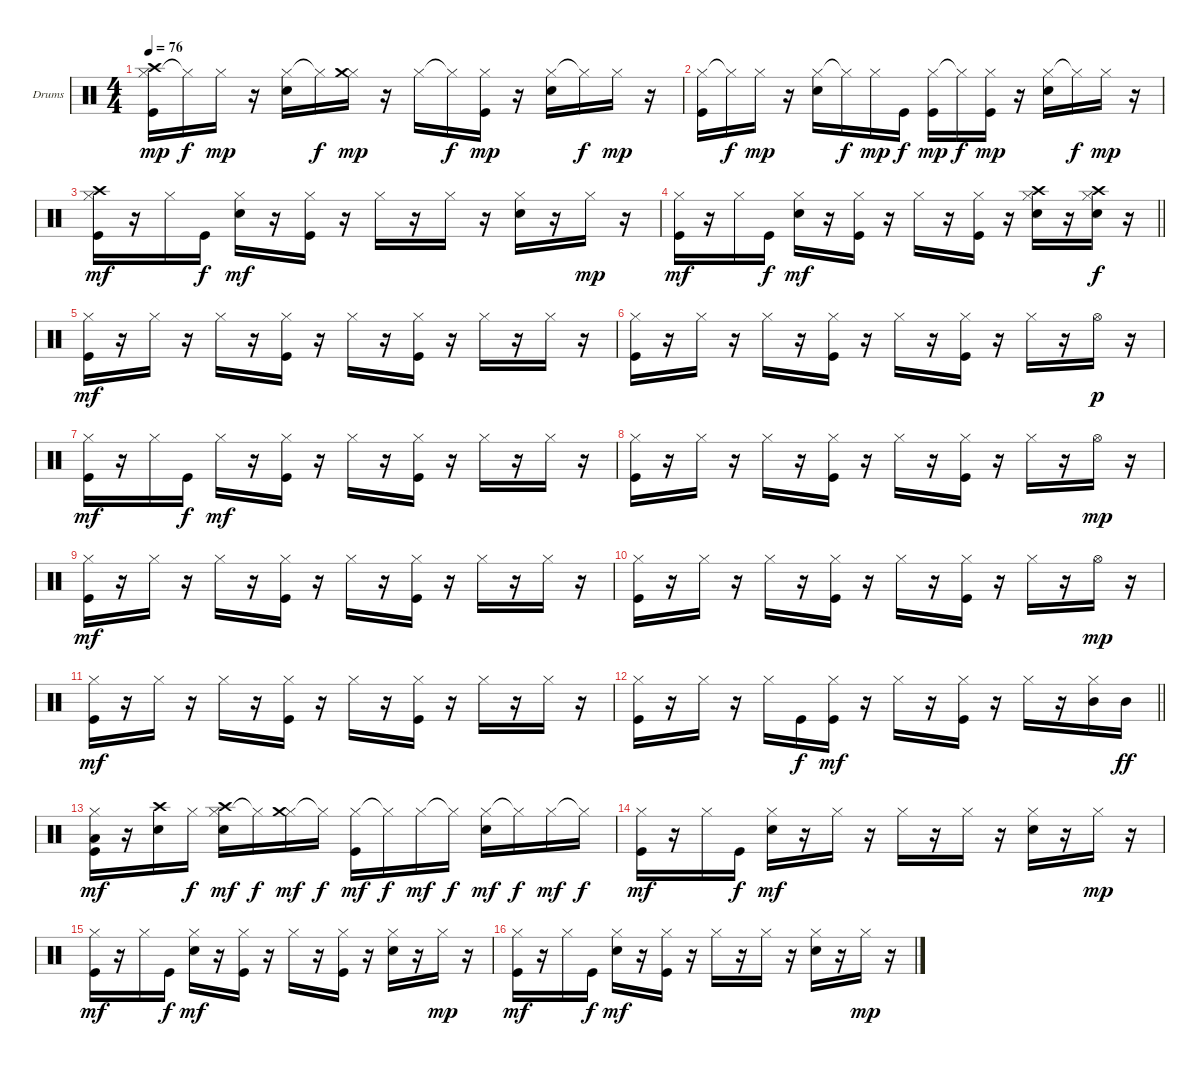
\bracketExtendMode groupsimilarinstruments
\firstSystemTrackNameOrientation horizontal
\otherSystemsTrackNameOrientation horizontal
\track ("Drumkit" "Drums") {instrument percussion}
\staff {score}
\articulation defaults
\ts (4 4)
\tempo 76
\clef neutral
\ks c
("Hi-Hat (closed)" "Crash high (hit)" "Kick (hit)").16{dy mp} "Hi-Hat (closed)"{t}.16{dy f} "Hi-Hat (closed)".16{dy mp} r.16 ("Hi-Hat (closed)" "Snare (hit) 2").16 "Hi-Hat (closed)"{t}.16{dy f} ("Hi-Hat (closed)" "Crash medium (hit)").16{dy mp} r.16 "Hi-Hat (closed)".16 "Hi-Hat (closed)"{t}.16{dy f} ("Hi-Hat (closed)" "Kick (hit)").16{dy mp} r.16 ("Hi-Hat (closed)" "Snare (hit) 2").16 "Hi-Hat (closed)"{t}.16{dy f} "Hi-Hat (closed)".16{dy mp} r.16 |
("Hi-Hat (closed)" "Kick (hit)").16 "Hi-Hat (closed)"{t}.16{dy f} "Hi-Hat (closed)".16{dy mp} r.16 ("Hi-Hat (closed)" "Snare (hit) 2").16 "Hi-Hat (closed)"{t}.16{dy f} "Hi-Hat (closed)".16{dy mp} "Kick (hit)".16{dy f} ("Hi-Hat (closed)" "Kick (hit)").16{dy mp} "Hi-Hat (closed)"{t}.16{dy f} ("Hi-Hat (closed)" "Kick (hit)").16{dy mp} r.16 ("Hi-Hat (closed)" "Snare (hit) 2").16 "Hi-Hat (closed)"{t}.16{dy f} "Hi-Hat (closed)".16{dy mp} r.16 |
("Hi-Hat (closed)" "Crash high (hit)" "Kick (hit)").16{dy mf} r.16 "Hi-Hat (closed)".16 "Kick (hit)".16{dy f} ("Hi-Hat (closed)" "Snare (hit) 2").16{dy mf} r.16 ("Hi-Hat (closed)" "Kick (hit)").16 r.16 "Hi-Hat (closed)".16 r.16 "Hi-Hat (closed)".16 r.16 ("Hi-Hat (closed)" "Snare (hit) 2").16 r.16 "Hi-Hat (closed)".16{dy mp} r.16 |
\barLineRight lightlight
("Hi-Hat (closed)" "Kick (hit)").16{dy mf} r.16 "Hi-Hat (closed)".16 "Kick (hit)".16{dy f} ("Hi-Hat (closed)" "Snare (hit) 2").16{dy mf} r.16 ("Hi-Hat (closed)" "Kick (hit)").16 r.16 "Hi-Hat (closed)".16 r.16 ("Hi-Hat (closed)" "Kick (hit)").16 r.16 ("Hi-Hat (closed)" "Crash high (hit)" "Snare (hit) 2").16 r.16 ("Hi-Hat (closed)" "Crash high (hit)" "Snare (hit) 2").16{dy f} r.16 |
("Hi-Hat (closed)" "Kick (hit)").16{dy mf} r.16 "Hi-Hat (closed)".16 r.16 "Hi-Hat (closed)".16 r.16 ("Hi-Hat (closed)" "Kick (hit)").16 r.16 "Hi-Hat (closed)".16 r.16 ("Hi-Hat (closed)" "Kick (hit)").16 r.16 "Hi-Hat (closed)".16 r.16 "Hi-Hat (closed)".16 r.16 |
("Hi-Hat (closed)" "Kick (hit)").16 r.16 "Hi-Hat (closed)".16 r.16 "Hi-Hat (closed)".16 r.16 ("Hi-Hat (closed)" "Kick (hit)").16 r.16 "Hi-Hat (closed)".16 r.16 ("Hi-Hat (closed)" "Kick (hit)").16 r.16 "Hi-Hat (closed)".16 r.16 "Hi-Hat (open)".16{dy p} r.16 |
("Hi-Hat (closed)" "Kick (hit)").16{dy mf} r.16 "Hi-Hat (closed)".16 "Kick (hit)".16{dy f} "Hi-Hat (closed)".16{dy mf} r.16 ("Hi-Hat (closed)" "Kick (hit)").16 r.16 "Hi-Hat (closed)".16 r.16 ("Hi-Hat (closed)" "Kick (hit)").16 r.16 "Hi-Hat (closed)".16 r.16 "Hi-Hat (closed)".16 r.16 |
("Hi-Hat (closed)" "Kick (hit)").16 r.16 "Hi-Hat (closed)".16 r.16 "Hi-Hat (closed)".16 r.16 ("Hi-Hat (closed)" "Kick (hit)").16 r.16 "Hi-Hat (closed)".16 r.16 ("Hi-Hat (closed)" "Kick (hit)").16 r.16 "Hi-Hat (closed)".16 r.16 "Hi-Hat (open)".16{dy mp} r.16 |
("Hi-Hat (closed)" "Kick (hit)").16{dy mf} r.16 "Hi-Hat (closed)".16 r.16 "Hi-Hat (closed)".16 r.16 ("Hi-Hat (closed)" "Kick (hit)").16 r.16 "Hi-Hat (closed)".16 r.16 ("Hi-Hat (closed)" "Kick (hit)").16 r.16 "Hi-Hat (closed)".16 r.16 "Hi-Hat (closed)".16 r.16 |
("Hi-Hat (closed)" "Kick (hit)").16 r.16 "Hi-Hat (closed)".16 r.16 "Hi-Hat (closed)".16 r.16 ("Hi-Hat (closed)" "Kick (hit)").16 r.16 "Hi-Hat (closed)".16 r.16 ("Hi-Hat (closed)" "Kick (hit)").16 r.16 "Hi-Hat (closed)".16 r.16 "Hi-Hat (open)".16{dy mp} r.16 |
("Hi-Hat (closed)" "Kick (hit)").16{dy mf} r.16 "Hi-Hat (closed)".16 r.16 "Hi-Hat (closed)".16 r.16 ("Hi-Hat (closed)" "Kick (hit)").16 r.16 "Hi-Hat (closed)".16 r.16 ("Hi-Hat (closed)" "Kick (hit)").16 r.16 "Hi-Hat (closed)".16 r.16 "Hi-Hat (closed)".16 r.16 |
\barLineRight lightlight
("Hi-Hat (closed)" "Kick (hit)").16 r.16 "Hi-Hat (closed)".16 r.16 "Hi-Hat (closed)".16 "Kick (hit)".16{dy f} ("Hi-Hat (closed)" "Kick (hit)").16{dy mf} r.16 "Hi-Hat (closed)".16 r.16 ("Hi-Hat (closed)" "Kick (hit)").16 r.16 "Hi-Hat (closed)".16 r.16 ("Hi-Hat (closed)" "Mid Tom (hit)").16 "Mid Tom (hit)".16{dy ff} |
("Hi-Hat (closed)" "Low Tom (hit)" "Kick (hit)").16{dy mf} r.16 ("Crash high (hit)" "Snare (hit) 2").16 "Hi-Hat (closed)".16{dy f} ("Hi-Hat (closed)" "Crash high (hit)" "Snare (hit) 2").16{dy mf} "Hi-Hat (closed)"{t}.16{dy f} ("Hi-Hat (closed)" "Crash medium (hit)").16{dy mf} "Hi-Hat (closed)"{t}.16{dy f} ("Hi-Hat (closed)" "Kick (hit)").16{dy mf} "Hi-Hat (closed)"{t}.16{dy f} "Hi-Hat (closed)".16{dy mf} "Hi-Hat (closed)"{t}.16{dy f} ("Hi-Hat (closed)" "Snare (hit) 2").16{dy mf} "Hi-Hat (closed)"{t}.16{dy f} "Hi-Hat (closed)".16{dy mf} "Hi-Hat (closed)"{t}.16{dy f} |
("Hi-Hat (closed)" "Kick (hit)").16{dy mf} r.16 "Hi-Hat (closed)".16 "Kick (hit)".16{dy f} ("Hi-Hat (closed)" "Snare (hit) 2").16{dy mf} r.16 "Hi-Hat (closed)".16 r.16 "Hi-Hat (closed)".16 r.16 "Hi-Hat (closed)".16 r.16 ("Hi-Hat (closed)" "Snare (hit) 2").16 r.16 "Hi-Hat (closed)".16{dy mp} r.16 |
("Hi-Hat (closed)" "Kick (hit)").16{dy mf} r.16 "Hi-Hat (closed)".16 "Kick (hit)".16{dy f} ("Hi-Hat (closed)" "Snare (hit) 2").16{dy mf} r.16 ("Hi-Hat (closed)" "Kick (hit)").16 r.16 "Hi-Hat (closed)".16 r.16 ("Hi-Hat (closed)" "Kick (hit)").16 r.16 ("Hi-Hat (closed)" "Snare (hit) 2").16 r.16 "Hi-Hat (closed)".16{dy mp} r.16 |
("Hi-Hat (closed)" "Kick (hit)").16{dy mf} r.16 "Hi-Hat (closed)".16 "Kick (hit)".16{dy f} ("Hi-Hat (closed)" "Snare (hit) 2").16{dy mf} r.16 ("Hi-Hat (closed)" "Kick (hit)").16 r.16 "Hi-Hat (closed)".16 r.16 "Hi-Hat (closed)".16 r.16 ("Hi-Hat (closed)" "Snare (hit) 2").16 r.16 "Hi-Hat (closed)".16{dy mp} r.16
